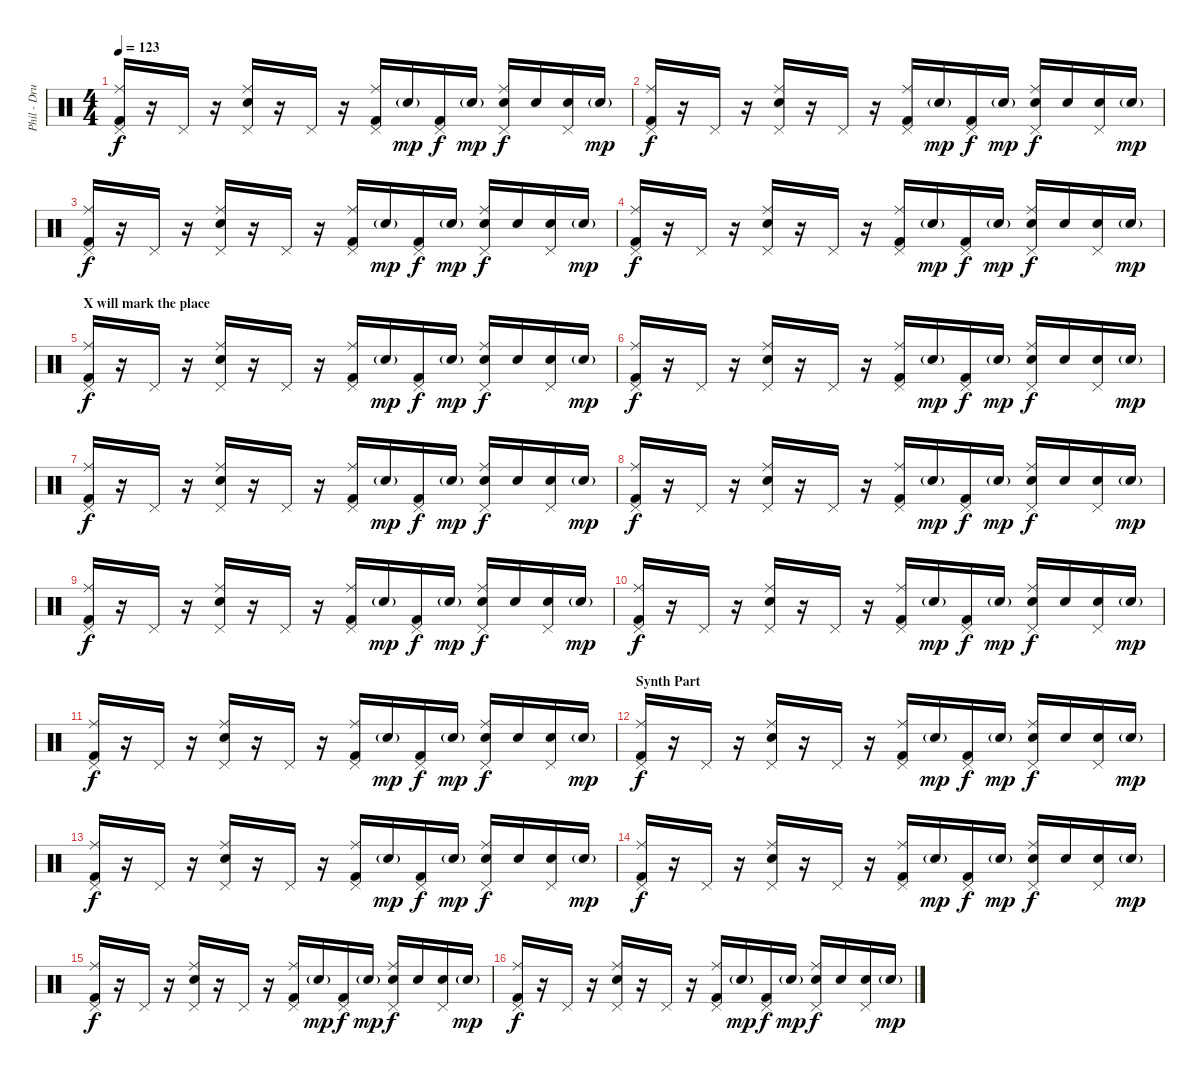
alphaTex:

\track ("Phil - Drums" "Phil - Dru") {instrument percussion}
\staff {score}
\articulation defaults
\ts (4 4)
\tempo 123
\clef neutral
\ks c
("Ride (middle)" "Kick (hit) 2" "Pedal Hi-Hat (hit)").16{dy f} r.16 "Pedal Hi-Hat (hit)".16 r.16 ("Ride (middle)" "Snare (hit) 2" "Pedal Hi-Hat (hit)").16 r.16 "Pedal Hi-Hat (hit)".16 r.16 ("Ride (middle)" "Kick (hit) 2" "Pedal Hi-Hat (hit)").16 "Snare (hit) 2"{g}.16{dy mp} ("Kick (hit) 2" "Pedal Hi-Hat (hit)").16{dy f} "Snare (hit) 2"{g}.16{dy mp} ("Ride (middle)" "Snare (hit) 2" "Pedal Hi-Hat (hit)").16{dy f} "Snare (hit) 2".16 ("Snare (hit) 2" "Pedal Hi-Hat (hit)").16 "Snare (hit) 2"{g}.16{dy mp} |
("Ride (middle)" "Kick (hit) 2" "Pedal Hi-Hat (hit)").16{dy f} r.16 "Pedal Hi-Hat (hit)".16 r.16 ("Ride (middle)" "Snare (hit) 2" "Pedal Hi-Hat (hit)").16 r.16 "Pedal Hi-Hat (hit)".16 r.16 ("Ride (middle)" "Kick (hit) 2" "Pedal Hi-Hat (hit)").16 "Snare (hit) 2"{g}.16{dy mp} ("Kick (hit) 2" "Pedal Hi-Hat (hit)").16{dy f} "Snare (hit) 2"{g}.16{dy mp} ("Ride (middle)" "Snare (hit) 2" "Pedal Hi-Hat (hit)").16{dy f} "Snare (hit) 2".16 ("Snare (hit) 2" "Pedal Hi-Hat (hit)").16 "Snare (hit) 2"{g}.16{dy mp} |
("Ride (middle)" "Kick (hit) 2" "Pedal Hi-Hat (hit)").16{dy f} r.16 "Pedal Hi-Hat (hit)".16 r.16 ("Ride (middle)" "Snare (hit) 2" "Pedal Hi-Hat (hit)").16 r.16 "Pedal Hi-Hat (hit)".16 r.16 ("Ride (middle)" "Kick (hit) 2" "Pedal Hi-Hat (hit)").16 "Snare (hit) 2"{g}.16{dy mp} ("Kick (hit) 2" "Pedal Hi-Hat (hit)").16{dy f} "Snare (hit) 2"{g}.16{dy mp} ("Ride (middle)" "Snare (hit) 2" "Pedal Hi-Hat (hit)").16{dy f} "Snare (hit) 2".16 ("Snare (hit) 2" "Pedal Hi-Hat (hit)").16 "Snare (hit) 2"{g}.16{dy mp} |
("Ride (middle)" "Kick (hit) 2" "Pedal Hi-Hat (hit)").16{dy f} r.16 "Pedal Hi-Hat (hit)".16 r.16 ("Ride (middle)" "Snare (hit) 2" "Pedal Hi-Hat (hit)").16 r.16 "Pedal Hi-Hat (hit)".16 r.16 ("Ride (middle)" "Kick (hit) 2" "Pedal Hi-Hat (hit)").16 "Snare (hit) 2"{g}.16{dy mp} ("Kick (hit) 2" "Pedal Hi-Hat (hit)").16{dy f} "Snare (hit) 2"{g}.16{dy mp} ("Ride (middle)" "Snare (hit) 2" "Pedal Hi-Hat (hit)").16{dy f} "Snare (hit) 2".16 ("Snare (hit) 2" "Pedal Hi-Hat (hit)").16 "Snare (hit) 2"{g}.16{dy mp} |
\section ("" "X will mark the place")
("Ride (middle)" "Kick (hit) 2" "Pedal Hi-Hat (hit)").16{dy f} r.16 "Pedal Hi-Hat (hit)".16 r.16 ("Ride (middle)" "Snare (hit) 2" "Pedal Hi-Hat (hit)").16 r.16 "Pedal Hi-Hat (hit)".16 r.16 ("Ride (middle)" "Kick (hit) 2" "Pedal Hi-Hat (hit)").16 "Snare (hit) 2"{g}.16{dy mp} ("Kick (hit) 2" "Pedal Hi-Hat (hit)").16{dy f} "Snare (hit) 2"{g}.16{dy mp} ("Ride (middle)" "Snare (hit) 2" "Pedal Hi-Hat (hit)").16{dy f} "Snare (hit) 2".16 ("Snare (hit) 2" "Pedal Hi-Hat (hit)").16 "Snare (hit) 2"{g}.16{dy mp} |
("Ride (middle)" "Kick (hit) 2" "Pedal Hi-Hat (hit)").16{dy f} r.16 "Pedal Hi-Hat (hit)".16 r.16 ("Ride (middle)" "Snare (hit) 2" "Pedal Hi-Hat (hit)").16 r.16 "Pedal Hi-Hat (hit)".16 r.16 ("Ride (middle)" "Kick (hit) 2" "Pedal Hi-Hat (hit)").16 "Snare (hit) 2"{g}.16{dy mp} ("Kick (hit) 2" "Pedal Hi-Hat (hit)").16{dy f} "Snare (hit) 2"{g}.16{dy mp} ("Ride (middle)" "Snare (hit) 2" "Pedal Hi-Hat (hit)").16{dy f} "Snare (hit) 2".16 ("Snare (hit) 2" "Pedal Hi-Hat (hit)").16 "Snare (hit) 2"{g}.16{dy mp} |
("Ride (middle)" "Kick (hit) 2" "Pedal Hi-Hat (hit)").16{dy f} r.16 "Pedal Hi-Hat (hit)".16 r.16 ("Ride (middle)" "Snare (hit) 2" "Pedal Hi-Hat (hit)").16 r.16 "Pedal Hi-Hat (hit)".16 r.16 ("Ride (middle)" "Kick (hit) 2" "Pedal Hi-Hat (hit)").16 "Snare (hit) 2"{g}.16{dy mp} ("Kick (hit) 2" "Pedal Hi-Hat (hit)").16{dy f} "Snare (hit) 2"{g}.16{dy mp} ("Ride (middle)" "Snare (hit) 2" "Pedal Hi-Hat (hit)").16{dy f} "Snare (hit) 2".16 ("Snare (hit) 2" "Pedal Hi-Hat (hit)").16 "Snare (hit) 2"{g}.16{dy mp} |
("Ride (middle)" "Kick (hit) 2" "Pedal Hi-Hat (hit)").16{dy f} r.16 "Pedal Hi-Hat (hit)".16 r.16 ("Ride (middle)" "Snare (hit) 2" "Pedal Hi-Hat (hit)").16 r.16 "Pedal Hi-Hat (hit)".16 r.16 ("Ride (middle)" "Kick (hit) 2" "Pedal Hi-Hat (hit)").16 "Snare (hit) 2"{g}.16{dy mp} ("Kick (hit) 2" "Pedal Hi-Hat (hit)").16{dy f} "Snare (hit) 2"{g}.16{dy mp} ("Ride (middle)" "Snare (hit) 2" "Pedal Hi-Hat (hit)").16{dy f} "Snare (hit) 2".16 ("Snare (hit) 2" "Pedal Hi-Hat (hit)").16 "Snare (hit) 2"{g}.16{dy mp} |
("Ride (middle)" "Kick (hit) 2" "Pedal Hi-Hat (hit)").16{dy f} r.16 "Pedal Hi-Hat (hit)".16 r.16 ("Ride (middle)" "Snare (hit) 2" "Pedal Hi-Hat (hit)").16 r.16 "Pedal Hi-Hat (hit)".16 r.16 ("Ride (middle)" "Kick (hit) 2" "Pedal Hi-Hat (hit)").16 "Snare (hit) 2"{g}.16{dy mp} ("Kick (hit) 2" "Pedal Hi-Hat (hit)").16{dy f} "Snare (hit) 2"{g}.16{dy mp} ("Ride (middle)" "Snare (hit) 2" "Pedal Hi-Hat (hit)").16{dy f} "Snare (hit) 2".16 ("Snare (hit) 2" "Pedal Hi-Hat (hit)").16 "Snare (hit) 2"{g}.16{dy mp} |
("Ride (middle)" "Kick (hit) 2" "Pedal Hi-Hat (hit)").16{dy f} r.16 "Pedal Hi-Hat (hit)".16 r.16 ("Ride (middle)" "Snare (hit) 2" "Pedal Hi-Hat (hit)").16 r.16 "Pedal Hi-Hat (hit)".16 r.16 ("Ride (middle)" "Kick (hit) 2" "Pedal Hi-Hat (hit)").16 "Snare (hit) 2"{g}.16{dy mp} ("Kick (hit) 2" "Pedal Hi-Hat (hit)").16{dy f} "Snare (hit) 2"{g}.16{dy mp} ("Ride (middle)" "Snare (hit) 2" "Pedal Hi-Hat (hit)").16{dy f} "Snare (hit) 2".16 ("Snare (hit) 2" "Pedal Hi-Hat (hit)").16 "Snare (hit) 2"{g}.16{dy mp} |
("Ride (middle)" "Kick (hit) 2" "Pedal Hi-Hat (hit)").16{dy f} r.16 "Pedal Hi-Hat (hit)".16 r.16 ("Ride (middle)" "Snare (hit) 2" "Pedal Hi-Hat (hit)").16 r.16 "Pedal Hi-Hat (hit)".16 r.16 ("Ride (middle)" "Kick (hit) 2" "Pedal Hi-Hat (hit)").16 "Snare (hit) 2"{g}.16{dy mp} ("Kick (hit) 2" "Pedal Hi-Hat (hit)").16{dy f} "Snare (hit) 2"{g}.16{dy mp} ("Ride (middle)" "Snare (hit) 2" "Pedal Hi-Hat (hit)").16{dy f} "Snare (hit) 2".16 ("Snare (hit) 2" "Pedal Hi-Hat (hit)").16 "Snare (hit) 2"{g}.16{dy mp} |
\section ("" "Synth Part")
("Ride (middle)" "Kick (hit) 2" "Pedal Hi-Hat (hit)").16{dy f} r.16 "Pedal Hi-Hat (hit)".16 r.16 ("Ride (middle)" "Snare (hit) 2" "Pedal Hi-Hat (hit)").16 r.16 "Pedal Hi-Hat (hit)".16 r.16 ("Ride (middle)" "Kick (hit) 2" "Pedal Hi-Hat (hit)").16 "Snare (hit) 2"{g}.16{dy mp} ("Kick (hit) 2" "Pedal Hi-Hat (hit)").16{dy f} "Snare (hit) 2"{g}.16{dy mp} ("Ride (middle)" "Snare (hit) 2" "Pedal Hi-Hat (hit)").16{dy f} "Snare (hit) 2".16 ("Snare (hit) 2" "Pedal Hi-Hat (hit)").16 "Snare (hit) 2"{g}.16{dy mp} |
("Ride (middle)" "Kick (hit) 2" "Pedal Hi-Hat (hit)").16{dy f} r.16 "Pedal Hi-Hat (hit)".16 r.16 ("Ride (middle)" "Snare (hit) 2" "Pedal Hi-Hat (hit)").16 r.16 "Pedal Hi-Hat (hit)".16 r.16 ("Ride (middle)" "Kick (hit) 2" "Pedal Hi-Hat (hit)").16 "Snare (hit) 2"{g}.16{dy mp} ("Kick (hit) 2" "Pedal Hi-Hat (hit)").16{dy f} "Snare (hit) 2"{g}.16{dy mp} ("Ride (middle)" "Snare (hit) 2" "Pedal Hi-Hat (hit)").16{dy f} "Snare (hit) 2".16 ("Snare (hit) 2" "Pedal Hi-Hat (hit)").16 "Snare (hit) 2"{g}.16{dy mp} |
("Ride (middle)" "Kick (hit) 2" "Pedal Hi-Hat (hit)").16{dy f} r.16 "Pedal Hi-Hat (hit)".16 r.16 ("Ride (middle)" "Snare (hit) 2" "Pedal Hi-Hat (hit)").16 r.16 "Pedal Hi-Hat (hit)".16 r.16 ("Ride (middle)" "Kick (hit) 2" "Pedal Hi-Hat (hit)").16 "Snare (hit) 2"{g}.16{dy mp} ("Kick (hit) 2" "Pedal Hi-Hat (hit)").16{dy f} "Snare (hit) 2"{g}.16{dy mp} ("Ride (middle)" "Snare (hit) 2" "Pedal Hi-Hat (hit)").16{dy f} "Snare (hit) 2".16 ("Snare (hit) 2" "Pedal Hi-Hat (hit)").16 "Snare (hit) 2"{g}.16{dy mp} |
("Ride (middle)" "Kick (hit) 2" "Pedal Hi-Hat (hit)").16{dy f} r.16 "Pedal Hi-Hat (hit)".16 r.16 ("Ride (middle)" "Snare (hit) 2" "Pedal Hi-Hat (hit)").16 r.16 "Pedal Hi-Hat (hit)".16 r.16 ("Ride (middle)" "Kick (hit) 2" "Pedal Hi-Hat (hit)").16 "Snare (hit) 2"{g}.16{dy mp} ("Kick (hit) 2" "Pedal Hi-Hat (hit)").16{dy f} "Snare (hit) 2"{g}.16{dy mp} ("Ride (middle)" "Snare (hit) 2" "Pedal Hi-Hat (hit)").16{dy f} "Snare (hit) 2".16 ("Snare (hit) 2" "Pedal Hi-Hat (hit)").16 "Snare (hit) 2"{g}.16{dy mp} |
("Ride (middle)" "Kick (hit) 2" "Pedal Hi-Hat (hit)").16{dy f} r.16 "Pedal Hi-Hat (hit)".16 r.16 ("Ride (middle)" "Snare (hit) 2" "Pedal Hi-Hat (hit)").16 r.16 "Pedal Hi-Hat (hit)".16 r.16 ("Ride (middle)" "Kick (hit) 2" "Pedal Hi-Hat (hit)").16 "Snare (hit) 2"{g}.16{dy mp} ("Kick (hit) 2" "Pedal Hi-Hat (hit)").16{dy f} "Snare (hit) 2"{g}.16{dy mp} ("Ride (middle)" "Snare (hit) 2" "Pedal Hi-Hat (hit)").16{dy f} "Snare (hit) 2".16 ("Snare (hit) 2" "Pedal Hi-Hat (hit)").16 "Snare (hit) 2"{g}.16{dy mp}
